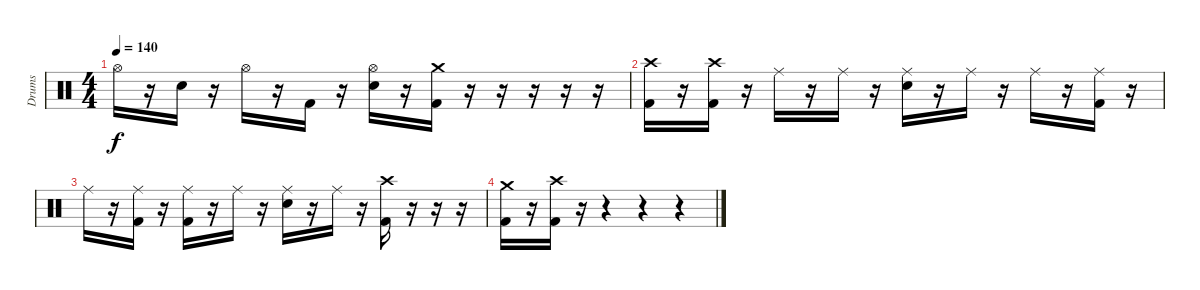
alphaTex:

\track ("Drums" "Drums") {instrument percussion}
\staff {score}
\articulation defaults
\ts (4 4)
\tempo 140
\clef neutral
\ks c "Hi-Hat (open)".16{dy f}
r.16 "Electric Snare (hit)".16 r.16 "Hi-Hat (open)".16 r.16 "Kick (hit) 2".16 r.16 ("Hi-Hat (open)" "Electric Snare (hit)").16 r.16 ("Crash medium (hit)" "Kick (hit) 2").16 r.16 r.16 r.16 r.16 r.16 |
("Crash high (hit)" "Kick (hit) 2").16 r.16 ("Crash high (hit)" "Kick (hit) 2").16 r.16 "Ride (middle)".16 r.16 "Ride (middle)".16 r.16 ("Ride (middle)" "Electric Snare (hit)").16 r.16 "Ride (middle)".16 r.16 "Ride (middle)".16 r.16 ("Ride (middle)" "Kick (hit) 2").16 r.16 |
"Ride (middle)".16 r.16 ("Ride (middle)" "Kick (hit) 2").16 r.16 ("Ride (middle)" "Kick (hit) 2").16 r.16 "Ride (middle)".16 r.16 ("Ride (middle)" "Electric Snare (hit)").16 r.16 "Ride (middle)".16 r.16 ("Crash high (hit)" "Kick (hit) 2").16 r.16 r.16 r.16 |
("Crash medium (hit)" "Kick (hit) 2").16 r.16 ("Crash high (hit)" "Kick (hit) 2").16 r.16 r.4 r.4 r.4
